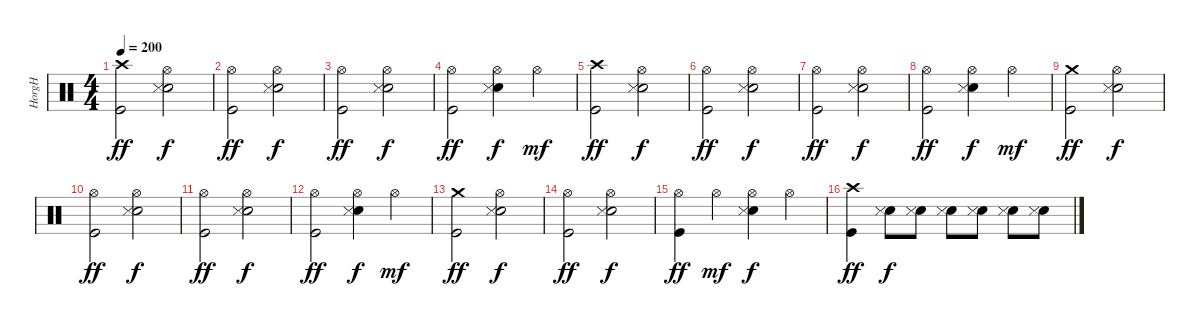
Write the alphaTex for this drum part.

\track ("HorgH" "HorgH") {instrument percussion}
\staff {score}
\articulation defaults
\ts (4 4)
\section ("" "")
\tempo 200
\clef neutral
\ks c
("Crash high (hit)" "Kick (hit)").2{dy ff} ("Hi-Hat (open)" "Electric Snare (hit)" "Snare (side stick) 3").2{dy f} |
("Hi-Hat (open)" "Kick (hit)").2{dy ff} ("Hi-Hat (open)" "Electric Snare (hit)" "Snare (side stick) 3").2{dy f} |
("Hi-Hat (open)" "Kick (hit)").2{dy ff} ("Hi-Hat (open)" "Electric Snare (hit)" "Snare (side stick) 3").2{dy f} |
("Hi-Hat (open)" "Kick (hit)").2{dy ff} ("Hi-Hat (open)" "Electric Snare (hit)" "Snare (side stick) 3").4{dy f} "Hi-Hat (open)".4{dy mf} |
("Crash high (hit)" "Kick (hit)").2{dy ff} ("Hi-Hat (open)" "Electric Snare (hit)" "Snare (side stick) 3").2{dy f} |
("Hi-Hat (open)" "Kick (hit)").2{dy ff} ("Hi-Hat (open)" "Electric Snare (hit)" "Snare (side stick) 3").2{dy f} |
("Hi-Hat (open)" "Kick (hit)").2{dy ff} ("Hi-Hat (open)" "Electric Snare (hit)" "Snare (side stick) 3").2{dy f} |
("Hi-Hat (open)" "Kick (hit)").2{dy ff} ("Hi-Hat (open)" "Electric Snare (hit)" "Snare (side stick) 3").4{dy f} "Hi-Hat (open)".4{dy mf} |
("Crash medium (hit)" "Kick (hit)").2{dy ff} ("Hi-Hat (open)" "Electric Snare (hit)" "Snare (side stick) 3").2{dy f} |
("Hi-Hat (open)" "Kick (hit)").2{dy ff} ("Hi-Hat (open)" "Electric Snare (hit)" "Snare (side stick) 3").2{dy f} |
("Hi-Hat (open)" "Kick (hit)").2{dy ff} ("Hi-Hat (open)" "Electric Snare (hit)" "Snare (side stick) 3").2{dy f} |
("Hi-Hat (open)" "Kick (hit)").2{dy ff} ("Hi-Hat (open)" "Electric Snare (hit)" "Snare (side stick) 3").4{dy f} "Hi-Hat (open)".4{dy mf} |
("Crash medium (hit)" "Kick (hit)").2{dy ff} ("Hi-Hat (open)" "Electric Snare (hit)" "Snare (side stick) 3").2{dy f} |
("Hi-Hat (open)" "Kick (hit)").2{dy ff} ("Hi-Hat (open)" "Electric Snare (hit)" "Snare (side stick) 3").2{dy f} |
("Hi-Hat (open)" "Kick (hit)").4{dy ff} "Hi-Hat (open)".4{dy mf} ("Hi-Hat (open)" "Electric Snare (hit)" "Snare (side stick) 3").4{dy f} "Hi-Hat (open)".4 |
("Crash high (hit)" "Kick (hit)").4{dy ff} ("Electric Snare (hit)" "Snare (side stick) 3").8{dy f} ("Electric Snare (hit)" "Snare (side stick) 3").8 ("Electric Snare (hit)" "Snare (side stick) 3").8 ("Electric Snare (hit)" "Snare (side stick) 3").8 ("Electric Snare (hit)" "Snare (side stick) 3").8 ("Electric Snare (hit)" "Snare (side stick) 3").8
